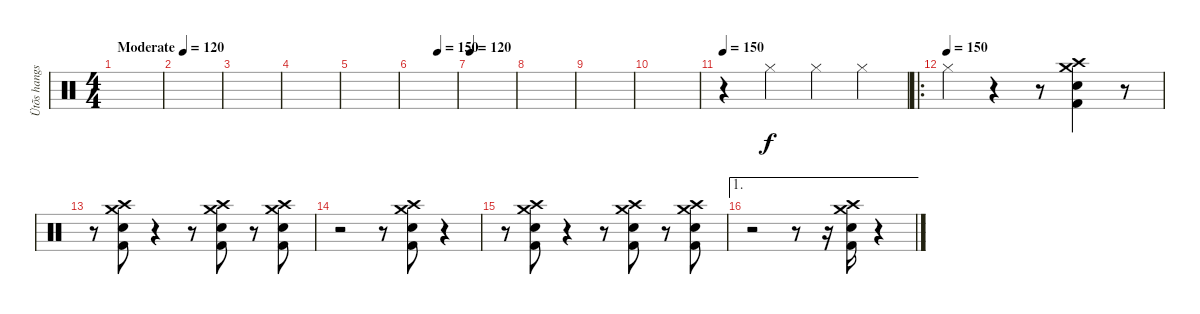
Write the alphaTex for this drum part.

\track ("Ütõs hangszer" "Ütõs hangs") {instrument percussion}
\staff {score}
\articulation defaults
\ts (4 4)
\tempo (120 "Moderate")
\clef neutral
\ks c
|
|
|
|
|
\tempo (150 0.5833333333333334)
|
\tempo 120
|
|
|
|
\tempo 150
r.4 "Hi-Hat (closed)".4 "Hi-Hat (closed)".4 "Hi-Hat (closed)".4 |
\ro
\tempo (150)
"Hi-Hat (closed)".4 r.4 r.8 ("Crash high (hit)" "Kick (hit) 2" "Snare (hit) 2" "Crash medium (hit)").4 r.8 |
r.8 ("Crash high (hit)" "Kick (hit) 2" "Snare (hit) 2" "Crash medium (hit)").8 r.4 r.8 ("Crash high (hit)" "Kick (hit) 2" "Snare (hit) 2" "Crash medium (hit)").8 r.8 ("Crash high (hit)" "Kick (hit) 2" "Snare (hit) 2" "Crash medium (hit)").8 |
r.2 r.8 ("Crash high (hit)" "Kick (hit) 2" "Snare (hit) 2" "Crash medium (hit)").8 r.4 |
r.8 ("Crash high (hit)" "Kick (hit) 2" "Snare (hit) 2" "Crash medium (hit)").8 r.4 r.8 ("Crash high (hit)" "Kick (hit) 2" "Snare (hit) 2" "Crash medium (hit)").8 r.8 ("Crash high (hit)" "Kick (hit) 2" "Snare (hit) 2" "Crash medium (hit)").8 |
\ae 1
r.2 r.8 r.16 ("Crash high (hit)" "Kick (hit) 2" "Snare (hit) 2" "Crash medium (hit)").16 r.4
